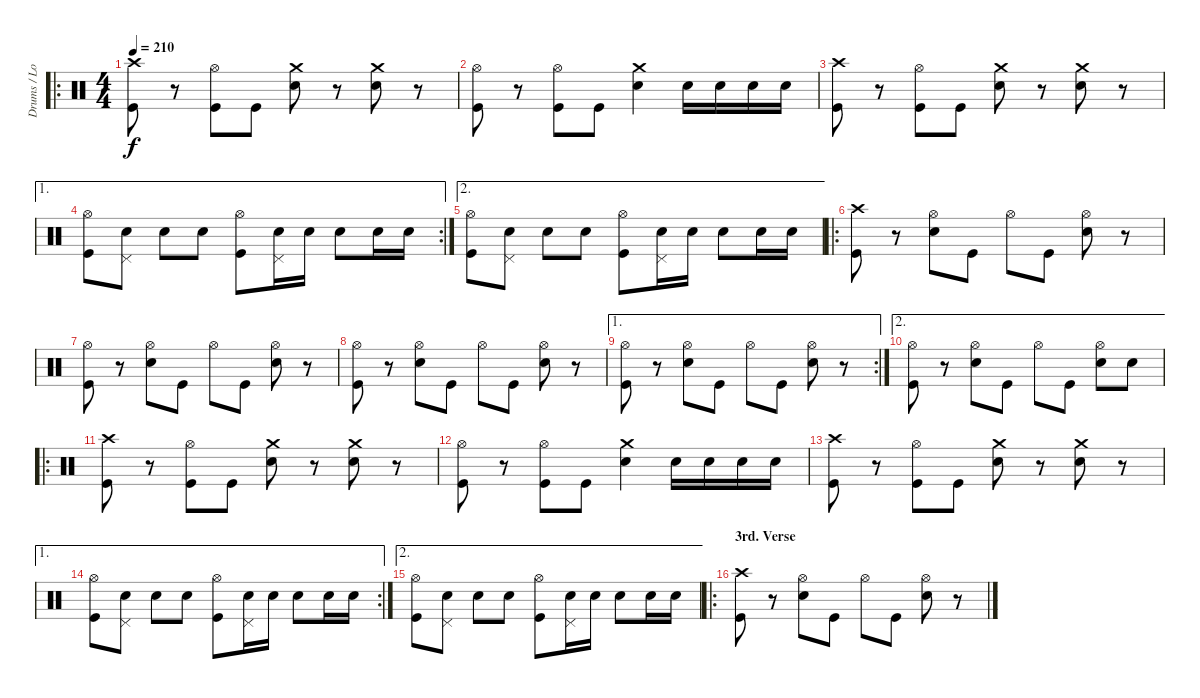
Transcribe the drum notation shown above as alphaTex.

\track ("Drums / Louie Clemente" "Drums / Lo") {instrument percussion}
\staff {score}
\articulation defaults
\ro
\ts (4 4)
\tempo 210
\clef neutral
\ks c
("Crash high (hit)" "Kick (hit)").8{dy f} r.8 ("Hi-Hat (open)" "Kick (hit)").8 "Kick (hit)".8 ("Crash medium (hit)" "Snare (hit) 2").8 r.8 ("Crash medium (hit)" "Snare (hit) 2").8 r.8 |
("Hi-Hat (open)" "Kick (hit)").8 r.8 ("Hi-Hat (open)" "Kick (hit)").8 "Kick (hit)".8 ("Crash medium (hit)" "Snare (hit) 2").4 "Snare (hit) 2".16 "Snare (hit) 2".16 "Snare (hit) 2".16 "Snare (hit) 2".16 |
("Crash high (hit)" "Kick (hit)").8 r.8 ("Hi-Hat (open)" "Kick (hit)").8 "Kick (hit)".8 ("Crash medium (hit)" "Snare (hit) 2").8 r.8 ("Crash medium (hit)" "Snare (hit) 2").8 r.8 |
\ae 1
\rc 2
("Hi-Hat (open)" "Kick (hit)").8 ("Pedal Hi-Hat (hit)" "Snare (hit) 2").8 "Snare (hit) 2".8 "Snare (hit) 2".8 ("Hi-Hat (open)" "Kick (hit)").8 ("Pedal Hi-Hat (hit)" "Snare (hit) 2").16 "Snare (hit) 2".16 "Snare (hit) 2".8 "Snare (hit) 2".16 "Snare (hit) 2".16 |
\ae 2
("Hi-Hat (open)" "Kick (hit)").8 ("Pedal Hi-Hat (hit)" "Snare (hit) 2").8 "Snare (hit) 2".8 "Snare (hit) 2".8 ("Hi-Hat (open)" "Kick (hit)").8 ("Pedal Hi-Hat (hit)" "Snare (hit) 2").16 "Snare (hit) 2".16 "Snare (hit) 2".8 "Snare (hit) 2".16 "Snare (hit) 2".16 |
\ro
("Crash high (hit)" "Kick (hit)").8 r.8 ("Hi-Hat (open)" "Snare (hit) 2").8 "Kick (hit)".8 "Hi-Hat (open)".8 "Kick (hit)".8 ("Hi-Hat (open)" "Snare (hit) 2").8 r.8 |
("Hi-Hat (open)" "Kick (hit)").8 r.8 ("Hi-Hat (open)" "Snare (hit) 2").8 "Kick (hit)".8 "Hi-Hat (open)".8 "Kick (hit)".8 ("Hi-Hat (open)" "Snare (hit) 2").8 r.8 |
("Hi-Hat (open)" "Kick (hit)").8 r.8 ("Hi-Hat (open)" "Snare (hit) 2").8 "Kick (hit)".8 "Hi-Hat (open)".8 "Kick (hit)".8 ("Hi-Hat (open)" "Snare (hit) 2").8 r.8 |
\ae 1
\rc 2
("Hi-Hat (open)" "Kick (hit)").8 r.8 ("Hi-Hat (open)" "Snare (hit) 2").8 "Kick (hit)".8 "Hi-Hat (open)".8 "Kick (hit)".8 ("Hi-Hat (open)" "Snare (hit) 2").8 r.8 |
\ae 2
("Hi-Hat (open)" "Kick (hit)").8 r.8 ("Hi-Hat (open)" "Snare (hit) 2").8 "Kick (hit)".8 "Hi-Hat (open)".8 "Kick (hit)".8 ("Hi-Hat (open)" "Snare (hit) 2").8 "Snare (hit) 2".8 |
\ro
("Crash high (hit)" "Kick (hit)").8 r.8 ("Hi-Hat (open)" "Kick (hit)").8 "Kick (hit)".8 ("Crash medium (hit)" "Snare (hit) 2").8 r.8 ("Crash medium (hit)" "Snare (hit) 2").8 r.8 |
("Hi-Hat (open)" "Kick (hit)").8 r.8 ("Hi-Hat (open)" "Kick (hit)").8 "Kick (hit)".8 ("Crash medium (hit)" "Snare (hit) 2").4 "Snare (hit) 2".16 "Snare (hit) 2".16 "Snare (hit) 2".16 "Snare (hit) 2".16 |
("Crash high (hit)" "Kick (hit)").8 r.8 ("Hi-Hat (open)" "Kick (hit)").8 "Kick (hit)".8 ("Crash medium (hit)" "Snare (hit) 2").8 r.8 ("Crash medium (hit)" "Snare (hit) 2").8 r.8 |
\ae 1
\rc 2
("Hi-Hat (open)" "Kick (hit)").8 ("Pedal Hi-Hat (hit)" "Snare (hit) 2").8 "Snare (hit) 2".8 "Snare (hit) 2".8 ("Hi-Hat (open)" "Kick (hit)").8 ("Pedal Hi-Hat (hit)" "Snare (hit) 2").16 "Snare (hit) 2".16 "Snare (hit) 2".8 "Snare (hit) 2".16 "Snare (hit) 2".16 |
\ae 2
("Hi-Hat (open)" "Kick (hit)").8 ("Pedal Hi-Hat (hit)" "Snare (hit) 2").8 "Snare (hit) 2".8 "Snare (hit) 2".8 ("Hi-Hat (open)" "Kick (hit)").8 ("Pedal Hi-Hat (hit)" "Snare (hit) 2").16 "Snare (hit) 2".16 "Snare (hit) 2".8 "Snare (hit) 2".16 "Snare (hit) 2".16 |
\ro
\section ("" "3rd. Verse")
("Crash high (hit)" "Kick (hit)").8 r.8 ("Hi-Hat (open)" "Snare (hit) 2").8 "Kick (hit)".8 "Hi-Hat (open)".8 "Kick (hit)".8 ("Hi-Hat (open)" "Snare (hit) 2").8 r.8
